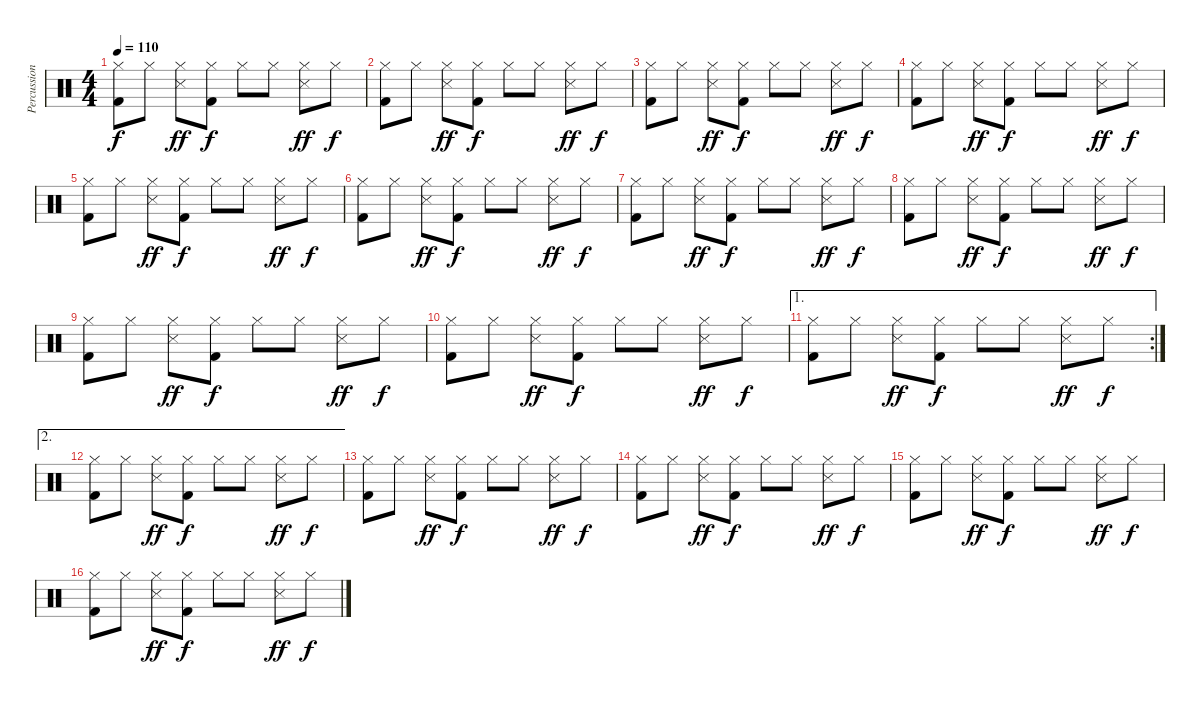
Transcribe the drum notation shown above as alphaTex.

\track ("Percussion" "Percussion") {instrument percussion}
\staff {score}
\articulation defaults
\ts (4 4)
\tempo 110
\clef neutral
\ks c
("Hi-Hat (closed)" "Kick (hit) 2").8{dy f} "Hi-Hat (closed)".8 ("Hi-Hat (closed)" "Snare (side stick) 3").8{dy ff} ("Hi-Hat (closed)" "Kick (hit) 2").8{dy f} "Hi-Hat (closed)".8 "Hi-Hat (closed)".8 ("Hi-Hat (closed)" "Snare (side stick) 3").8{dy ff} "Hi-Hat (closed)".8{dy f} |
("Hi-Hat (closed)" "Kick (hit) 2").8 "Hi-Hat (closed)".8 ("Hi-Hat (closed)" "Snare (side stick) 3").8{dy ff} ("Hi-Hat (closed)" "Kick (hit) 2").8{dy f} "Hi-Hat (closed)".8 "Hi-Hat (closed)".8 ("Hi-Hat (closed)" "Snare (side stick) 3").8{dy ff} "Hi-Hat (closed)".8{dy f} |
("Hi-Hat (closed)" "Kick (hit) 2").8 "Hi-Hat (closed)".8 ("Hi-Hat (closed)" "Snare (side stick) 3").8{dy ff} ("Hi-Hat (closed)" "Kick (hit) 2").8{dy f} "Hi-Hat (closed)".8 "Hi-Hat (closed)".8 ("Hi-Hat (closed)" "Snare (side stick) 3").8{dy ff} "Hi-Hat (closed)".8{dy f} |
("Hi-Hat (closed)" "Kick (hit) 2").8 "Hi-Hat (closed)".8 ("Hi-Hat (closed)" "Snare (side stick) 3").8{dy ff} ("Hi-Hat (closed)" "Kick (hit) 2").8{dy f} "Hi-Hat (closed)".8 "Hi-Hat (closed)".8 ("Hi-Hat (closed)" "Snare (side stick) 3").8{dy ff} "Hi-Hat (closed)".8{dy f} |
("Hi-Hat (closed)" "Kick (hit) 2").8 "Hi-Hat (closed)".8 ("Hi-Hat (closed)" "Snare (side stick) 3").8{dy ff} ("Hi-Hat (closed)" "Kick (hit) 2").8{dy f} "Hi-Hat (closed)".8 "Hi-Hat (closed)".8 ("Hi-Hat (closed)" "Snare (side stick) 3").8{dy ff} "Hi-Hat (closed)".8{dy f} |
("Hi-Hat (closed)" "Kick (hit) 2").8 "Hi-Hat (closed)".8 ("Hi-Hat (closed)" "Snare (side stick) 3").8{dy ff} ("Hi-Hat (closed)" "Kick (hit) 2").8{dy f} "Hi-Hat (closed)".8 "Hi-Hat (closed)".8 ("Hi-Hat (closed)" "Snare (side stick) 3").8{dy ff} "Hi-Hat (closed)".8{dy f} |
("Hi-Hat (closed)" "Kick (hit) 2").8 "Hi-Hat (closed)".8 ("Hi-Hat (closed)" "Snare (side stick) 3").8{dy ff} ("Hi-Hat (closed)" "Kick (hit) 2").8{dy f} "Hi-Hat (closed)".8 "Hi-Hat (closed)".8 ("Hi-Hat (closed)" "Snare (side stick) 3").8{dy ff} "Hi-Hat (closed)".8{dy f} |
("Hi-Hat (closed)" "Kick (hit) 2").8 "Hi-Hat (closed)".8 ("Hi-Hat (closed)" "Snare (side stick) 3").8{dy ff} ("Hi-Hat (closed)" "Kick (hit) 2").8{dy f} "Hi-Hat (closed)".8 "Hi-Hat (closed)".8 ("Hi-Hat (closed)" "Snare (side stick) 3").8{dy ff} "Hi-Hat (closed)".8{dy f} |
("Hi-Hat (closed)" "Kick (hit) 2").8 "Hi-Hat (closed)".8 ("Hi-Hat (closed)" "Snare (side stick) 3").8{dy ff} ("Hi-Hat (closed)" "Kick (hit) 2").8{dy f} "Hi-Hat (closed)".8 "Hi-Hat (closed)".8 ("Hi-Hat (closed)" "Snare (side stick) 3").8{dy ff} "Hi-Hat (closed)".8{dy f} |
("Hi-Hat (closed)" "Kick (hit) 2").8 "Hi-Hat (closed)".8 ("Hi-Hat (closed)" "Snare (side stick) 3").8{dy ff} ("Hi-Hat (closed)" "Kick (hit) 2").8{dy f} "Hi-Hat (closed)".8 "Hi-Hat (closed)".8 ("Hi-Hat (closed)" "Snare (side stick) 3").8{dy ff} "Hi-Hat (closed)".8{dy f} |
\ae 1
\rc 2
("Hi-Hat (closed)" "Kick (hit) 2").8 "Hi-Hat (closed)".8 ("Hi-Hat (closed)" "Snare (side stick) 3").8{dy ff} ("Hi-Hat (closed)" "Kick (hit) 2").8{dy f} "Hi-Hat (closed)".8 "Hi-Hat (closed)".8 ("Hi-Hat (closed)" "Snare (side stick) 3").8{dy ff} "Hi-Hat (closed)".8{dy f} |
\ae 2
("Hi-Hat (closed)" "Kick (hit) 2").8 "Hi-Hat (closed)".8 ("Hi-Hat (closed)" "Snare (side stick) 3").8{dy ff} ("Hi-Hat (closed)" "Kick (hit) 2").8{dy f} "Hi-Hat (closed)".8 "Hi-Hat (closed)".8 ("Hi-Hat (closed)" "Snare (side stick) 3").8{dy ff} "Hi-Hat (closed)".8{dy f} |
("Hi-Hat (closed)" "Kick (hit) 2").8 "Hi-Hat (closed)".8 ("Hi-Hat (closed)" "Snare (side stick) 3").8{dy ff} ("Hi-Hat (closed)" "Kick (hit) 2").8{dy f} "Hi-Hat (closed)".8 "Hi-Hat (closed)".8 ("Hi-Hat (closed)" "Snare (side stick) 3").8{dy ff} "Hi-Hat (closed)".8{dy f} |
("Hi-Hat (closed)" "Kick (hit) 2").8 "Hi-Hat (closed)".8 ("Hi-Hat (closed)" "Snare (side stick) 3").8{dy ff} ("Hi-Hat (closed)" "Kick (hit) 2").8{dy f} "Hi-Hat (closed)".8 "Hi-Hat (closed)".8 ("Hi-Hat (closed)" "Snare (side stick) 3").8{dy ff} "Hi-Hat (closed)".8{dy f} |
("Hi-Hat (closed)" "Kick (hit) 2").8 "Hi-Hat (closed)".8 ("Hi-Hat (closed)" "Snare (side stick) 3").8{dy ff} ("Hi-Hat (closed)" "Kick (hit) 2").8{dy f} "Hi-Hat (closed)".8 "Hi-Hat (closed)".8 ("Hi-Hat (closed)" "Snare (side stick) 3").8{dy ff} "Hi-Hat (closed)".8{dy f} |
("Hi-Hat (closed)" "Kick (hit) 2").8 "Hi-Hat (closed)".8 ("Hi-Hat (closed)" "Snare (side stick) 3").8{dy ff} ("Hi-Hat (closed)" "Kick (hit) 2").8{dy f} "Hi-Hat (closed)".8 "Hi-Hat (closed)".8 ("Hi-Hat (closed)" "Snare (side stick) 3").8{dy ff} "Hi-Hat (closed)".8{dy f}
